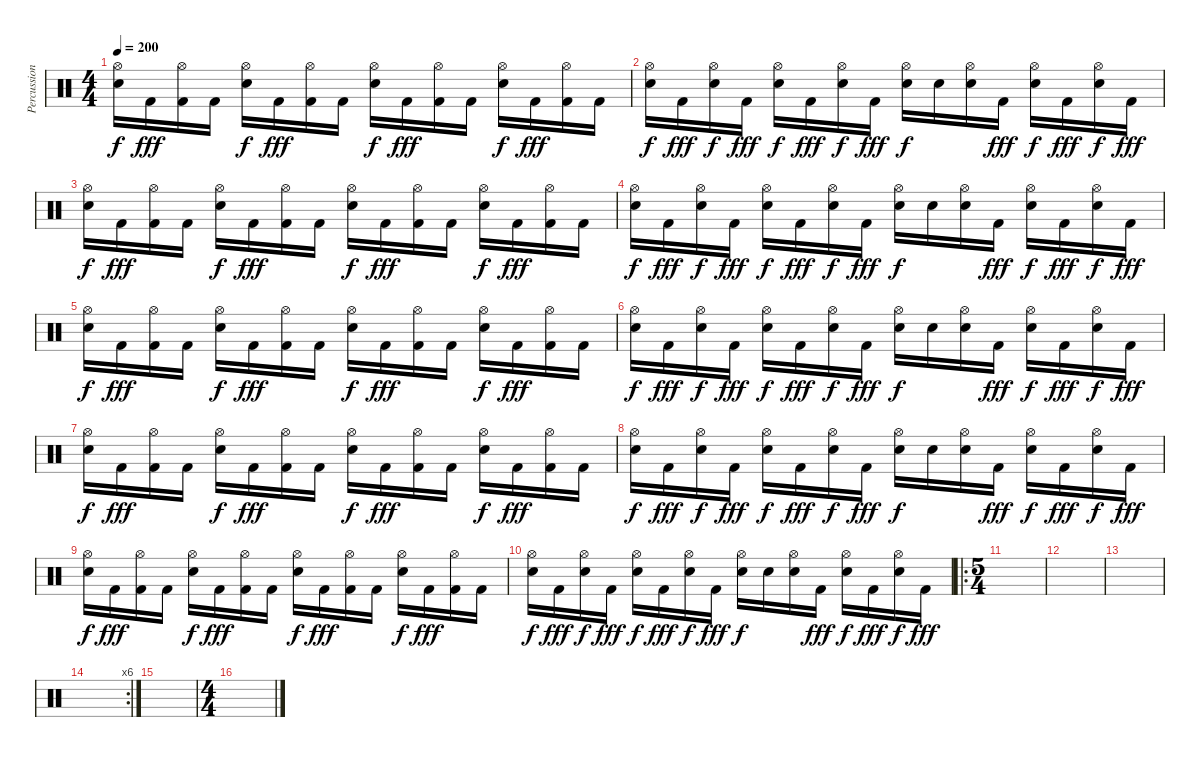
\track ("Percussion" "Percussion") {instrument percussion}
\staff {score}
\articulation defaults
\ts (4 4)
\tempo 200
\clef neutral
\ks c
("Hi-Hat (open)" "Electric Snare (hit)").16{dy f} "Kick (hit) 2".16{dy fff} ("Hi-Hat (open)" "Kick (hit) 2").16 "Kick (hit) 2".16 ("Hi-Hat (open)" "Electric Snare (hit)").16{dy f} "Kick (hit) 2".16{dy fff} ("Hi-Hat (open)" "Kick (hit) 2").16 "Kick (hit) 2".16 ("Hi-Hat (open)" "Electric Snare (hit)").16{dy f} "Kick (hit) 2".16{dy fff} ("Hi-Hat (open)" "Kick (hit) 2").16 "Kick (hit) 2".16 ("Hi-Hat (open)" "Electric Snare (hit)").16{dy f} "Kick (hit) 2".16{dy fff} ("Hi-Hat (open)" "Kick (hit) 2").16 "Kick (hit) 2".16 |
("Hi-Hat (open)" "Electric Snare (hit)").16{dy f} "Kick (hit) 2".16{dy fff} ("Hi-Hat (open)" "Electric Snare (hit)").16{dy f} "Kick (hit) 2".16{dy fff} ("Hi-Hat (open)" "Electric Snare (hit)").16{dy f} "Kick (hit) 2".16{dy fff} ("Hi-Hat (open)" "Electric Snare (hit)").16{dy f} "Kick (hit) 2".16{dy fff} ("Hi-Hat (open)" "Electric Snare (hit)").16{dy f} "Electric Snare (hit)".16 ("Hi-Hat (open)" "Electric Snare (hit)").16 "Kick (hit) 2".16{dy fff} ("Hi-Hat (open)" "Electric Snare (hit)").16{dy f} "Kick (hit) 2".16{dy fff} ("Hi-Hat (open)" "Electric Snare (hit)").16{dy f} "Kick (hit) 2".16{dy fff} |
("Hi-Hat (open)" "Electric Snare (hit)").16{dy f} "Kick (hit) 2".16{dy fff} ("Hi-Hat (open)" "Kick (hit) 2").16 "Kick (hit) 2".16 ("Hi-Hat (open)" "Electric Snare (hit)").16{dy f} "Kick (hit) 2".16{dy fff} ("Hi-Hat (open)" "Kick (hit) 2").16 "Kick (hit) 2".16 ("Hi-Hat (open)" "Electric Snare (hit)").16{dy f} "Kick (hit) 2".16{dy fff} ("Hi-Hat (open)" "Kick (hit) 2").16 "Kick (hit) 2".16 ("Hi-Hat (open)" "Electric Snare (hit)").16{dy f} "Kick (hit) 2".16{dy fff} ("Hi-Hat (open)" "Kick (hit) 2").16 "Kick (hit) 2".16 |
("Hi-Hat (open)" "Electric Snare (hit)").16{dy f} "Kick (hit) 2".16{dy fff} ("Hi-Hat (open)" "Electric Snare (hit)").16{dy f} "Kick (hit) 2".16{dy fff} ("Hi-Hat (open)" "Electric Snare (hit)").16{dy f} "Kick (hit) 2".16{dy fff} ("Hi-Hat (open)" "Electric Snare (hit)").16{dy f} "Kick (hit) 2".16{dy fff} ("Hi-Hat (open)" "Electric Snare (hit)").16{dy f} "Electric Snare (hit)".16 ("Hi-Hat (open)" "Electric Snare (hit)").16 "Kick (hit) 2".16{dy fff} ("Hi-Hat (open)" "Electric Snare (hit)").16{dy f} "Kick (hit) 2".16{dy fff} ("Hi-Hat (open)" "Electric Snare (hit)").16{dy f} "Kick (hit) 2".16{dy fff} |
("Hi-Hat (open)" "Electric Snare (hit)").16{dy f} "Kick (hit) 2".16{dy fff} ("Hi-Hat (open)" "Kick (hit) 2").16 "Kick (hit) 2".16 ("Hi-Hat (open)" "Electric Snare (hit)").16{dy f} "Kick (hit) 2".16{dy fff} ("Hi-Hat (open)" "Kick (hit) 2").16 "Kick (hit) 2".16 ("Hi-Hat (open)" "Electric Snare (hit)").16{dy f} "Kick (hit) 2".16{dy fff} ("Hi-Hat (open)" "Kick (hit) 2").16 "Kick (hit) 2".16 ("Hi-Hat (open)" "Electric Snare (hit)").16{dy f} "Kick (hit) 2".16{dy fff} ("Hi-Hat (open)" "Kick (hit) 2").16 "Kick (hit) 2".16 |
("Hi-Hat (open)" "Electric Snare (hit)").16{dy f} "Kick (hit) 2".16{dy fff} ("Hi-Hat (open)" "Electric Snare (hit)").16{dy f} "Kick (hit) 2".16{dy fff} ("Hi-Hat (open)" "Electric Snare (hit)").16{dy f} "Kick (hit) 2".16{dy fff} ("Hi-Hat (open)" "Electric Snare (hit)").16{dy f} "Kick (hit) 2".16{dy fff} ("Hi-Hat (open)" "Electric Snare (hit)").16{dy f} "Electric Snare (hit)".16 ("Hi-Hat (open)" "Electric Snare (hit)").16 "Kick (hit) 2".16{dy fff} ("Hi-Hat (open)" "Electric Snare (hit)").16{dy f} "Kick (hit) 2".16{dy fff} ("Hi-Hat (open)" "Electric Snare (hit)").16{dy f} "Kick (hit) 2".16{dy fff} |
("Hi-Hat (open)" "Electric Snare (hit)").16{dy f} "Kick (hit) 2".16{dy fff} ("Hi-Hat (open)" "Kick (hit) 2").16 "Kick (hit) 2".16 ("Hi-Hat (open)" "Electric Snare (hit)").16{dy f} "Kick (hit) 2".16{dy fff} ("Hi-Hat (open)" "Kick (hit) 2").16 "Kick (hit) 2".16 ("Hi-Hat (open)" "Electric Snare (hit)").16{dy f} "Kick (hit) 2".16{dy fff} ("Hi-Hat (open)" "Kick (hit) 2").16 "Kick (hit) 2".16 ("Hi-Hat (open)" "Electric Snare (hit)").16{dy f} "Kick (hit) 2".16{dy fff} ("Hi-Hat (open)" "Kick (hit) 2").16 "Kick (hit) 2".16 |
("Hi-Hat (open)" "Electric Snare (hit)").16{dy f} "Kick (hit) 2".16{dy fff} ("Hi-Hat (open)" "Electric Snare (hit)").16{dy f} "Kick (hit) 2".16{dy fff} ("Hi-Hat (open)" "Electric Snare (hit)").16{dy f} "Kick (hit) 2".16{dy fff} ("Hi-Hat (open)" "Electric Snare (hit)").16{dy f} "Kick (hit) 2".16{dy fff} ("Hi-Hat (open)" "Electric Snare (hit)").16{dy f} "Electric Snare (hit)".16 ("Hi-Hat (open)" "Electric Snare (hit)").16 "Kick (hit) 2".16{dy fff} ("Hi-Hat (open)" "Electric Snare (hit)").16{dy f} "Kick (hit) 2".16{dy fff} ("Hi-Hat (open)" "Electric Snare (hit)").16{dy f} "Kick (hit) 2".16{dy fff} |
("Hi-Hat (open)" "Electric Snare (hit)").16{dy f} "Kick (hit) 2".16{dy fff} ("Hi-Hat (open)" "Kick (hit) 2").16 "Kick (hit) 2".16 ("Hi-Hat (open)" "Electric Snare (hit)").16{dy f} "Kick (hit) 2".16{dy fff} ("Hi-Hat (open)" "Kick (hit) 2").16 "Kick (hit) 2".16 ("Hi-Hat (open)" "Electric Snare (hit)").16{dy f} "Kick (hit) 2".16{dy fff} ("Hi-Hat (open)" "Kick (hit) 2").16 "Kick (hit) 2".16 ("Hi-Hat (open)" "Electric Snare (hit)").16{dy f} "Kick (hit) 2".16{dy fff} ("Hi-Hat (open)" "Kick (hit) 2").16 "Kick (hit) 2".16 |
("Hi-Hat (open)" "Electric Snare (hit)").16{dy f} "Kick (hit) 2".16{dy fff} ("Hi-Hat (open)" "Electric Snare (hit)").16{dy f} "Kick (hit) 2".16{dy fff} ("Hi-Hat (open)" "Electric Snare (hit)").16{dy f} "Kick (hit) 2".16{dy fff} ("Hi-Hat (open)" "Electric Snare (hit)").16{dy f} "Kick (hit) 2".16{dy fff} ("Hi-Hat (open)" "Electric Snare (hit)").16{dy f} "Electric Snare (hit)".16 ("Hi-Hat (open)" "Electric Snare (hit)").16 "Kick (hit) 2".16{dy fff} ("Hi-Hat (open)" "Electric Snare (hit)").16{dy f} "Kick (hit) 2".16{dy fff} ("Hi-Hat (open)" "Electric Snare (hit)").16{dy f} "Kick (hit) 2".16{dy fff} |
\ro
\ts (5 4)
|
|
|
\rc 6
|
|
\ts (4 4)
